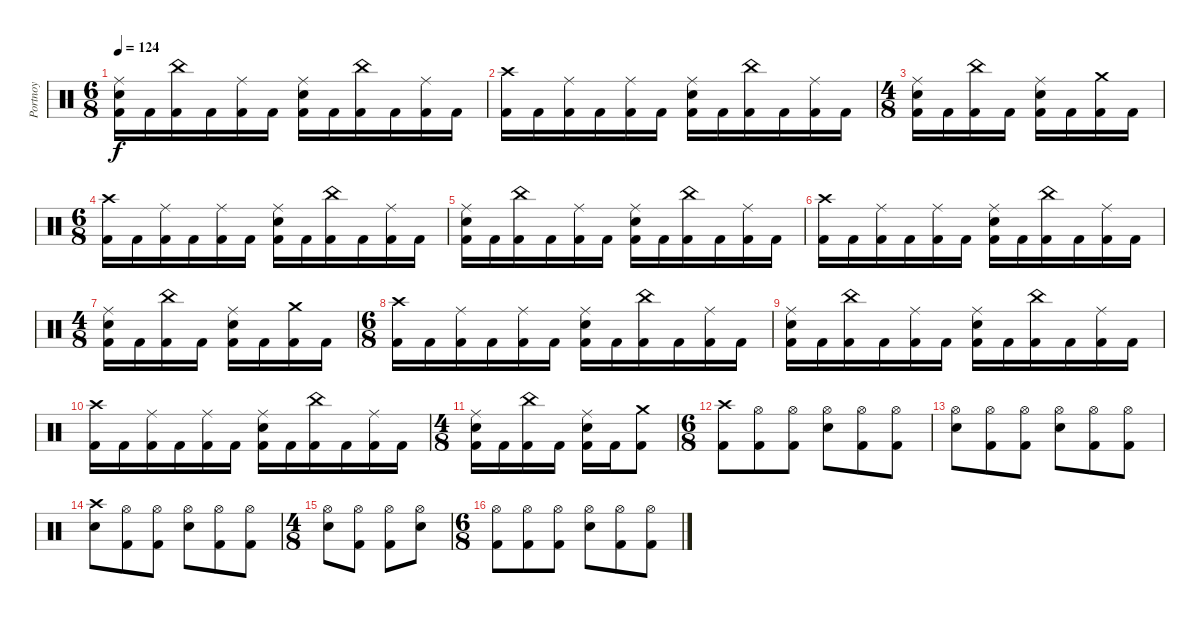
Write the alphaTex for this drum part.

\track ("Portnoy" "Portnoy") {instrument percussion}
\staff {score}
\articulation defaults
\ts (6 8)
\tempo 124
\clef neutral
\ks c
("Ride (middle)" "Electric Snare (hit)" "Kick (hit) 2").16{dy f} "Kick (hit) 2".16 ("China (hit)" "Kick (hit) 2").16 "Kick (hit) 2".16 ("Ride (middle)" "Kick (hit) 2").16 "Kick (hit) 2".16 ("Ride (middle)" "Electric Snare (hit)" "Kick (hit) 2").16 "Kick (hit) 2".16 ("China (hit)" "Kick (hit) 2").16 "Kick (hit) 2".16 ("Ride (middle)" "Kick (hit) 2").16 "Kick (hit) 2".16 |
("Crash high (hit)" "Kick (hit) 2").16 "Kick (hit) 2".16 ("Ride (middle)" "Kick (hit) 2").16 "Kick (hit) 2".16 ("Ride (middle)" "Kick (hit) 2").16 "Kick (hit) 2".16 ("Ride (middle)" "Electric Snare (hit)" "Kick (hit) 2").16 "Kick (hit) 2".16 ("China (hit)" "Kick (hit) 2").16 "Kick (hit) 2".16 ("Ride (middle)" "Kick (hit) 2").16 "Kick (hit) 2".16 |
\ts (4 8)
("Ride (middle)" "Electric Snare (hit)" "Kick (hit) 2").16 "Kick (hit) 2".16{beam merge} ("China (hit)" "Kick (hit) 2").16 "Kick (hit) 2".16{beam split} ("Ride (middle)" "Electric Snare (hit)" "Kick (hit) 2").16 "Kick (hit) 2".16{beam merge} ("Crash medium (hit)" "Kick (hit) 2").16 "Kick (hit) 2".16 |
\ts (6 8)
("Crash high (hit)" "Kick (hit) 2").16 "Kick (hit) 2".16 ("Ride (middle)" "Kick (hit) 2").16 "Kick (hit) 2".16 ("Ride (middle)" "Kick (hit) 2").16 "Kick (hit) 2".16 ("Ride (middle)" "Electric Snare (hit)" "Kick (hit) 2").16 "Kick (hit) 2".16 ("China (hit)" "Kick (hit) 2").16 "Kick (hit) 2".16 ("Ride (middle)" "Kick (hit) 2").16 "Kick (hit) 2".16 |
("Ride (middle)" "Electric Snare (hit)" "Kick (hit) 2").16 "Kick (hit) 2".16 ("China (hit)" "Kick (hit) 2").16 "Kick (hit) 2".16 ("Ride (middle)" "Kick (hit) 2").16 "Kick (hit) 2".16 ("Ride (middle)" "Electric Snare (hit)" "Kick (hit) 2").16 "Kick (hit) 2".16 ("China (hit)" "Kick (hit) 2").16 "Kick (hit) 2".16 ("Ride (middle)" "Kick (hit) 2").16 "Kick (hit) 2".16 |
("Crash high (hit)" "Kick (hit) 2").16 "Kick (hit) 2".16 ("Ride (middle)" "Kick (hit) 2").16 "Kick (hit) 2".16 ("Ride (middle)" "Kick (hit) 2").16 "Kick (hit) 2".16 ("Ride (middle)" "Electric Snare (hit)" "Kick (hit) 2").16 "Kick (hit) 2".16 ("China (hit)" "Kick (hit) 2").16 "Kick (hit) 2".16 ("Ride (middle)" "Kick (hit) 2").16 "Kick (hit) 2".16 |
\ts (4 8)
("Ride (middle)" "Electric Snare (hit)" "Kick (hit) 2").16 "Kick (hit) 2".16{beam merge} ("China (hit)" "Kick (hit) 2").16 "Kick (hit) 2".16{beam split} ("Ride (middle)" "Electric Snare (hit)" "Kick (hit) 2").16 "Kick (hit) 2".16{beam merge} ("Crash medium (hit)" "Kick (hit) 2").16 "Kick (hit) 2".16 |
\ts (6 8)
("Crash high (hit)" "Kick (hit) 2").16 "Kick (hit) 2".16 ("Ride (middle)" "Kick (hit) 2").16 "Kick (hit) 2".16 ("Ride (middle)" "Kick (hit) 2").16 "Kick (hit) 2".16 ("Ride (middle)" "Electric Snare (hit)" "Kick (hit) 2").16 "Kick (hit) 2".16 ("China (hit)" "Kick (hit) 2").16 "Kick (hit) 2".16 ("Ride (middle)" "Kick (hit) 2").16 "Kick (hit) 2".16 |
("Ride (middle)" "Electric Snare (hit)" "Kick (hit) 2").16 "Kick (hit) 2".16 ("China (hit)" "Kick (hit) 2").16 "Kick (hit) 2".16 ("Ride (middle)" "Kick (hit) 2").16 "Kick (hit) 2".16 ("Ride (middle)" "Electric Snare (hit)" "Kick (hit) 2").16 "Kick (hit) 2".16 ("China (hit)" "Kick (hit) 2").16 "Kick (hit) 2".16 ("Ride (middle)" "Kick (hit) 2").16 "Kick (hit) 2".16 |
("Crash high (hit)" "Kick (hit) 2").16 "Kick (hit) 2".16 ("Ride (middle)" "Kick (hit) 2").16 "Kick (hit) 2".16 ("Ride (middle)" "Kick (hit) 2").16 "Kick (hit) 2".16 ("Ride (middle)" "Electric Snare (hit)" "Kick (hit) 2").16 "Kick (hit) 2".16 ("China (hit)" "Kick (hit) 2").16 "Kick (hit) 2".16 ("Ride (middle)" "Kick (hit) 2").16 "Kick (hit) 2".16 |
\ts (4 8)
("Ride (middle)" "Electric Snare (hit)" "Kick (hit) 2").16 "Kick (hit) 2".16{beam merge} ("China (hit)" "Kick (hit) 2").16 "Kick (hit) 2".16{beam split} ("Ride (middle)" "Electric Snare (hit)" "Kick (hit) 2").16 "Kick (hit) 2".16{beam merge} ("Crash medium (hit)" "Kick (hit) 2").8 |
\ts (6 8)
("Crash high (hit)" "Kick (hit) 2").8 ("Hi-Hat (open)" "Kick (hit) 2").8 ("Hi-Hat (open)" "Kick (hit) 2").8 ("Hi-Hat (open)" "Electric Snare (hit)").8 ("Hi-Hat (open)" "Kick (hit) 2").8 ("Hi-Hat (open)" "Kick (hit) 2").8 |
("Hi-Hat (open)" "Electric Snare (hit)").8 ("Hi-Hat (open)" "Kick (hit) 2").8 ("Hi-Hat (open)" "Kick (hit) 2").8 ("Hi-Hat (open)" "Electric Snare (hit)").8 ("Hi-Hat (open)" "Kick (hit) 2").8 ("Hi-Hat (open)" "Kick (hit) 2").8 |
("Crash high (hit)" "Electric Snare (hit)").8 ("Hi-Hat (open)" "Kick (hit) 2").8 ("Hi-Hat (open)" "Kick (hit) 2").8 ("Hi-Hat (open)" "Electric Snare (hit)").8 ("Hi-Hat (open)" "Kick (hit) 2").8 ("Hi-Hat (open)" "Kick (hit) 2").8 |
\ts (4 8)
("Hi-Hat (open)" "Electric Snare (hit)").8 ("Hi-Hat (open)" "Kick (hit) 2").8 ("Hi-Hat (open)" "Kick (hit) 2").8 ("Hi-Hat (open)" "Electric Snare (hit)").8 |
\ts (6 8)
("Hi-Hat (open)" "Kick (hit) 2").8 ("Hi-Hat (open)" "Kick (hit) 2").8 ("Hi-Hat (open)" "Kick (hit) 2").8 ("Hi-Hat (open)" "Electric Snare (hit)").8 ("Hi-Hat (open)" "Kick (hit) 2").8 ("Hi-Hat (open)" "Kick (hit) 2").8
